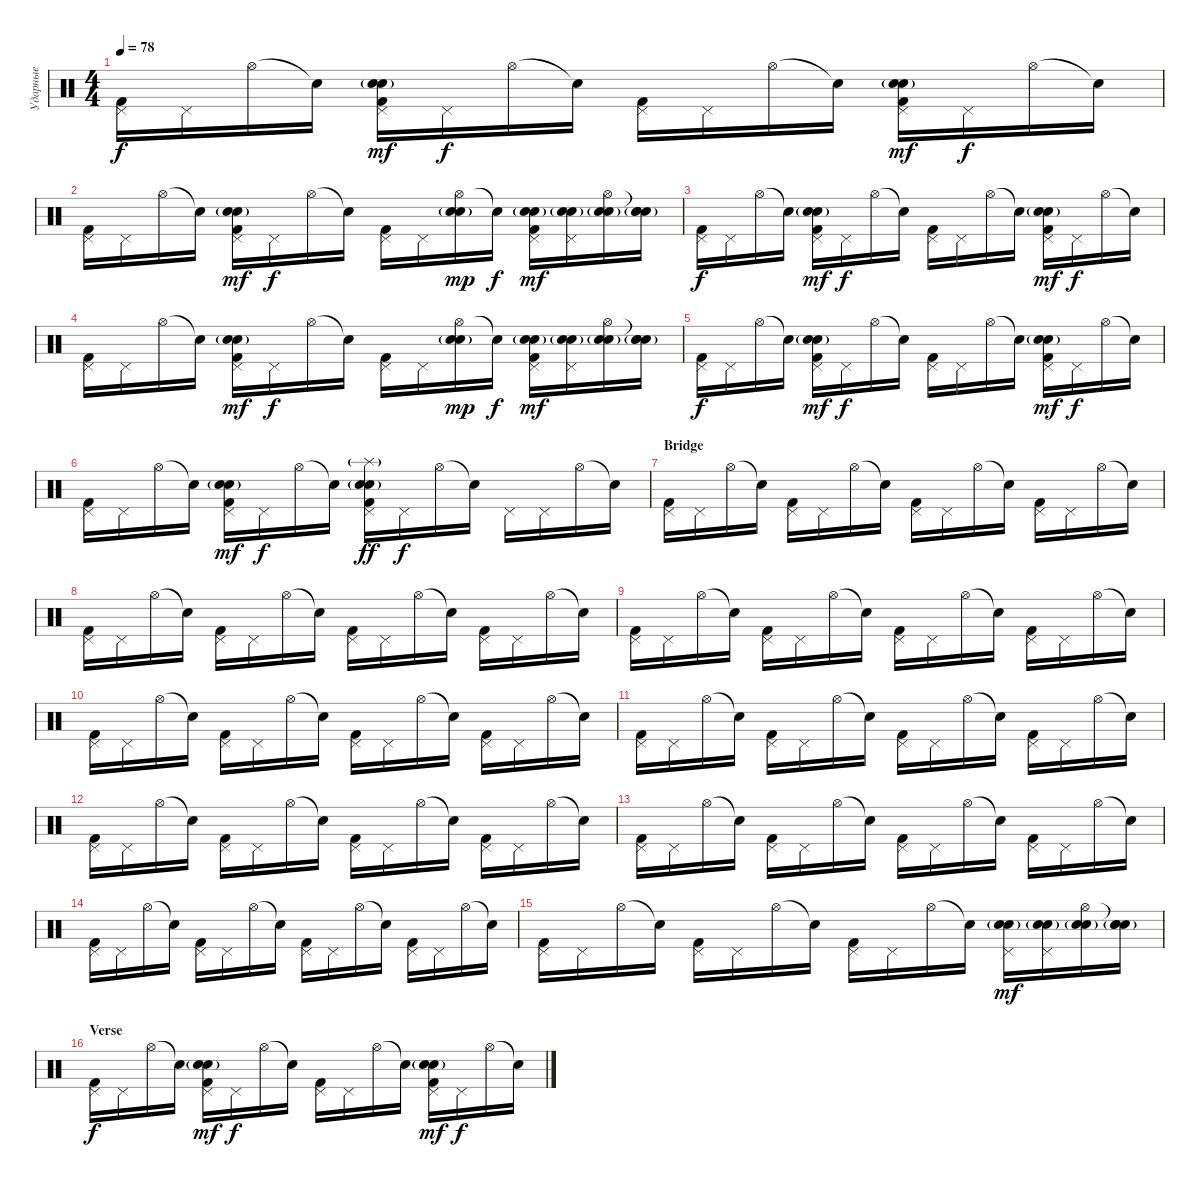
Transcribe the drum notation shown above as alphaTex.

\track ("Ударные" "Ударные") {instrument percussion}
\staff {score}
\articulation defaults
\ts (4 4)
\tempo 78
\clef neutral
\ks c
("Pedal Hi-Hat (hit)" "Kick (hit) 2").16{dy f} "Pedal Hi-Hat (hit)".16 "Hi-Hat (open)".16 "Snare (hit)"{t}.16 ("Pedal Hi-Hat (hit)" "Snare (hit) 2" "Electric Snare (hit)"{g} "Kick (hit) 2").16{dy mf} "Pedal Hi-Hat (hit)".16{dy f} "Hi-Hat (open)".16 "Snare (hit)"{t}.16 ("Pedal Hi-Hat (hit)" "Kick (hit) 2").16 "Pedal Hi-Hat (hit)".16 "Hi-Hat (open)".16 "Snare (hit)"{t}.16 ("Pedal Hi-Hat (hit)" "Snare (hit) 2" "Electric Snare (hit)"{g} "Kick (hit) 2").16{dy mf} "Pedal Hi-Hat (hit)".16{dy f} "Hi-Hat (open)".16 "Snare (hit)"{t}.16 |
("Pedal Hi-Hat (hit)" "Kick (hit) 2").16 "Pedal Hi-Hat (hit)".16 "Hi-Hat (open)".16 "Snare (hit)"{t}.16 ("Pedal Hi-Hat (hit)" "Snare (hit) 2" "Electric Snare (hit)"{g} "Kick (hit) 2").16{dy mf} "Pedal Hi-Hat (hit)".16{dy f} "Hi-Hat (open)".16 "Snare (hit)"{t}.16 ("Pedal Hi-Hat (hit)" "Kick (hit) 2").16 "Pedal Hi-Hat (hit)".16 ("Hi-Hat (open)" "Snare (hit) 2" "Electric Snare (hit)"{g}).16{dy mp} "Snare (hit)"{t}.16{dy f} ("Pedal Hi-Hat (hit)" "Snare (hit) 2" "Electric Snare (hit)"{g} "Kick (hit) 2").16{dy mf} ("Pedal Hi-Hat (hit)" "Snare (hit) 2" "Electric Snare (hit)"{g}).16 ("Hi-Hat (open)" "Snare (hit) 2" "Electric Snare (hit)"{g}).16 ("Snare (hit)"{t} "Snare (hit) 2" "Electric Snare (hit)"{g}).16 |
("Pedal Hi-Hat (hit)" "Kick (hit) 2").16{dy f} "Pedal Hi-Hat (hit)".16 "Hi-Hat (open)".16 "Snare (hit)"{t}.16 ("Pedal Hi-Hat (hit)" "Snare (hit) 2" "Electric Snare (hit)"{g} "Kick (hit) 2").16{dy mf} "Pedal Hi-Hat (hit)".16{dy f} "Hi-Hat (open)".16 "Snare (hit)"{t}.16 ("Pedal Hi-Hat (hit)" "Kick (hit) 2").16 "Pedal Hi-Hat (hit)".16 "Hi-Hat (open)".16 "Snare (hit)"{t}.16 ("Pedal Hi-Hat (hit)" "Snare (hit) 2" "Electric Snare (hit)"{g} "Kick (hit) 2").16{dy mf} "Pedal Hi-Hat (hit)".16{dy f} "Hi-Hat (open)".16 "Snare (hit)"{t}.16 |
("Pedal Hi-Hat (hit)" "Kick (hit) 2").16 "Pedal Hi-Hat (hit)".16 "Hi-Hat (open)".16 "Snare (hit)"{t}.16 ("Pedal Hi-Hat (hit)" "Snare (hit) 2" "Electric Snare (hit)"{g} "Kick (hit) 2").16{dy mf} "Pedal Hi-Hat (hit)".16{dy f} "Hi-Hat (open)".16 "Snare (hit)"{t}.16 ("Pedal Hi-Hat (hit)" "Kick (hit) 2").16 "Pedal Hi-Hat (hit)".16 ("Hi-Hat (open)" "Snare (hit) 2" "Electric Snare (hit)"{g}).16{dy mp} "Snare (hit)"{t}.16{dy f} ("Pedal Hi-Hat (hit)" "Snare (hit) 2" "Electric Snare (hit)"{g} "Kick (hit) 2").16{dy mf} ("Pedal Hi-Hat (hit)" "Snare (hit) 2" "Electric Snare (hit)"{g}).16 ("Hi-Hat (open)" "Snare (hit) 2" "Electric Snare (hit)"{g}).16 ("Snare (hit)"{t} "Snare (hit) 2" "Electric Snare (hit)"{g}).16 |
("Pedal Hi-Hat (hit)" "Kick (hit) 2").16{dy f} "Pedal Hi-Hat (hit)".16 "Hi-Hat (open)".16 "Snare (hit)"{t}.16 ("Pedal Hi-Hat (hit)" "Snare (hit) 2" "Electric Snare (hit)"{g} "Kick (hit) 2").16{dy mf} "Pedal Hi-Hat (hit)".16{dy f} "Hi-Hat (open)".16 "Snare (hit)"{t}.16 ("Pedal Hi-Hat (hit)" "Kick (hit) 2").16 "Pedal Hi-Hat (hit)".16 "Hi-Hat (open)".16 "Snare (hit)"{t}.16 ("Pedal Hi-Hat (hit)" "Snare (hit) 2" "Electric Snare (hit)"{g} "Kick (hit) 2").16{dy mf} "Pedal Hi-Hat (hit)".16{dy f} "Hi-Hat (open)".16 "Snare (hit)"{t}.16 |
("Pedal Hi-Hat (hit)" "Kick (hit) 2").16 "Pedal Hi-Hat (hit)".16 "Hi-Hat (open)".16 "Snare (hit)"{t}.16 ("Pedal Hi-Hat (hit)" "Snare (hit) 2" "Electric Snare (hit)"{g} "Kick (hit) 2").16{dy mf} "Pedal Hi-Hat (hit)".16{dy f} "Hi-Hat (open)".16 "Snare (hit)"{t}.16 ("Splash (hit)"{g} "Pedal Hi-Hat (hit)" "Snare (hit) 2" "Electric Snare (hit)"{g} "Kick (hit) 2").16{dy ff} "Pedal Hi-Hat (hit)".16{dy f} "Hi-Hat (open)".16 "Snare (hit)"{t}.16 "Pedal Hi-Hat (hit)".16 "Pedal Hi-Hat (hit)".16 "Hi-Hat (open)".16 "Snare (hit)"{t}.16 |
\section ("" "Bridge")
("Pedal Hi-Hat (hit)" "Kick (hit) 2").16 "Pedal Hi-Hat (hit)".16 "Hi-Hat (open)".16 "Snare (hit)"{t}.16 ("Pedal Hi-Hat (hit)" "Kick (hit) 2").16 "Pedal Hi-Hat (hit)".16 "Hi-Hat (open)".16 "Snare (hit)"{t}.16 ("Pedal Hi-Hat (hit)" "Kick (hit) 2").16 "Pedal Hi-Hat (hit)".16 "Hi-Hat (open)".16 "Snare (hit)"{t}.16 ("Pedal Hi-Hat (hit)" "Kick (hit) 2").16 "Pedal Hi-Hat (hit)".16 "Hi-Hat (open)".16 "Snare (hit)"{t}.16 |
("Pedal Hi-Hat (hit)" "Kick (hit) 2").16 "Pedal Hi-Hat (hit)".16 "Hi-Hat (open)".16 "Snare (hit)"{t}.16 ("Pedal Hi-Hat (hit)" "Kick (hit) 2").16 "Pedal Hi-Hat (hit)".16 "Hi-Hat (open)".16 "Snare (hit)"{t}.16 ("Pedal Hi-Hat (hit)" "Kick (hit) 2").16 "Pedal Hi-Hat (hit)".16 "Hi-Hat (open)".16 "Snare (hit)"{t}.16 ("Pedal Hi-Hat (hit)" "Kick (hit) 2").16 "Pedal Hi-Hat (hit)".16 "Hi-Hat (open)".16 "Snare (hit)"{t}.16 |
("Pedal Hi-Hat (hit)" "Kick (hit) 2").16 "Pedal Hi-Hat (hit)".16 "Hi-Hat (open)".16 "Snare (hit)"{t}.16 ("Pedal Hi-Hat (hit)" "Kick (hit) 2").16 "Pedal Hi-Hat (hit)".16 "Hi-Hat (open)".16 "Snare (hit)"{t}.16 ("Pedal Hi-Hat (hit)" "Kick (hit) 2").16 "Pedal Hi-Hat (hit)".16 "Hi-Hat (open)".16 "Snare (hit)"{t}.16 ("Pedal Hi-Hat (hit)" "Kick (hit) 2").16 "Pedal Hi-Hat (hit)".16 "Hi-Hat (open)".16 "Snare (hit)"{t}.16 |
("Pedal Hi-Hat (hit)" "Kick (hit) 2").16 "Pedal Hi-Hat (hit)".16 "Hi-Hat (open)".16 "Snare (hit)"{t}.16 ("Pedal Hi-Hat (hit)" "Kick (hit) 2").16 "Pedal Hi-Hat (hit)".16 "Hi-Hat (open)".16 "Snare (hit)"{t}.16 ("Pedal Hi-Hat (hit)" "Kick (hit) 2").16 "Pedal Hi-Hat (hit)".16 "Hi-Hat (open)".16 "Snare (hit)"{t}.16 ("Pedal Hi-Hat (hit)" "Kick (hit) 2").16 "Pedal Hi-Hat (hit)".16 "Hi-Hat (open)".16 "Snare (hit)"{t}.16 |
("Pedal Hi-Hat (hit)" "Kick (hit) 2").16 "Pedal Hi-Hat (hit)".16 "Hi-Hat (open)".16 "Snare (hit)"{t}.16 ("Pedal Hi-Hat (hit)" "Kick (hit) 2").16 "Pedal Hi-Hat (hit)".16 "Hi-Hat (open)".16 "Snare (hit)"{t}.16 ("Pedal Hi-Hat (hit)" "Kick (hit) 2").16 "Pedal Hi-Hat (hit)".16 "Hi-Hat (open)".16 "Snare (hit)"{t}.16 ("Pedal Hi-Hat (hit)" "Kick (hit) 2").16 "Pedal Hi-Hat (hit)".16 "Hi-Hat (open)".16 "Snare (hit)"{t}.16 |
("Pedal Hi-Hat (hit)" "Kick (hit) 2").16 "Pedal Hi-Hat (hit)".16 "Hi-Hat (open)".16 "Snare (hit)"{t}.16 ("Pedal Hi-Hat (hit)" "Kick (hit) 2").16 "Pedal Hi-Hat (hit)".16 "Hi-Hat (open)".16 "Snare (hit)"{t}.16 ("Pedal Hi-Hat (hit)" "Kick (hit) 2").16 "Pedal Hi-Hat (hit)".16 "Hi-Hat (open)".16 "Snare (hit)"{t}.16 ("Pedal Hi-Hat (hit)" "Kick (hit) 2").16 "Pedal Hi-Hat (hit)".16 "Hi-Hat (open)".16 "Snare (hit)"{t}.16 |
("Pedal Hi-Hat (hit)" "Kick (hit) 2").16 "Pedal Hi-Hat (hit)".16 "Hi-Hat (open)".16 "Snare (hit)"{t}.16 ("Pedal Hi-Hat (hit)" "Kick (hit) 2").16 "Pedal Hi-Hat (hit)".16 "Hi-Hat (open)".16 "Snare (hit)"{t}.16 ("Pedal Hi-Hat (hit)" "Kick (hit) 2").16 "Pedal Hi-Hat (hit)".16 "Hi-Hat (open)".16 "Snare (hit)"{t}.16 ("Pedal Hi-Hat (hit)" "Kick (hit) 2").16 "Pedal Hi-Hat (hit)".16 "Hi-Hat (open)".16 "Snare (hit)"{t}.16 |
("Pedal Hi-Hat (hit)" "Kick (hit) 2").16 "Pedal Hi-Hat (hit)".16 "Hi-Hat (open)".16 "Snare (hit)"{t}.16 ("Pedal Hi-Hat (hit)" "Kick (hit) 2").16 "Pedal Hi-Hat (hit)".16 "Hi-Hat (open)".16 "Snare (hit)"{t}.16 ("Pedal Hi-Hat (hit)" "Kick (hit) 2").16 "Pedal Hi-Hat (hit)".16 "Hi-Hat (open)".16 "Snare (hit)"{t}.16 ("Pedal Hi-Hat (hit)" "Kick (hit) 2").16 "Pedal Hi-Hat (hit)".16 "Hi-Hat (open)".16 "Snare (hit)"{t}.16 |
("Pedal Hi-Hat (hit)" "Kick (hit) 2").16 "Pedal Hi-Hat (hit)".16 "Hi-Hat (open)".16 "Snare (hit)"{t}.16 ("Pedal Hi-Hat (hit)" "Kick (hit) 2").16 "Pedal Hi-Hat (hit)".16 "Hi-Hat (open)".16 "Snare (hit)"{t}.16 ("Pedal Hi-Hat (hit)" "Kick (hit) 2").16 "Pedal Hi-Hat (hit)".16 "Hi-Hat (open)".16 "Snare (hit)"{t}.16 ("Pedal Hi-Hat (hit)" "Snare (hit) 2" "Electric Snare (hit)"{g}).16{dy mf} ("Pedal Hi-Hat (hit)" "Snare (hit) 2" "Electric Snare (hit)"{g}).16 ("Hi-Hat (open)" "Snare (hit) 2" "Electric Snare (hit)"{g}).16 ("Snare (hit)"{t} "Snare (hit) 2" "Electric Snare (hit)"{g}).16 |
\section ("" "Verse")
("Pedal Hi-Hat (hit)" "Kick (hit) 2").16{dy f} "Pedal Hi-Hat (hit)".16 "Hi-Hat (open)".16 "Snare (hit)"{t}.16 ("Pedal Hi-Hat (hit)" "Snare (hit) 2" "Electric Snare (hit)"{g} "Kick (hit) 2").16{dy mf} "Pedal Hi-Hat (hit)".16{dy f} "Hi-Hat (open)".16 "Snare (hit)"{t}.16 ("Pedal Hi-Hat (hit)" "Kick (hit) 2").16 "Pedal Hi-Hat (hit)".16 "Hi-Hat (open)".16 "Snare (hit)"{t}.16 ("Pedal Hi-Hat (hit)" "Snare (hit) 2" "Electric Snare (hit)"{g} "Kick (hit) 2").16{dy mf} "Pedal Hi-Hat (hit)".16{dy f} "Hi-Hat (open)".16 "Snare (hit)"{t}.16
